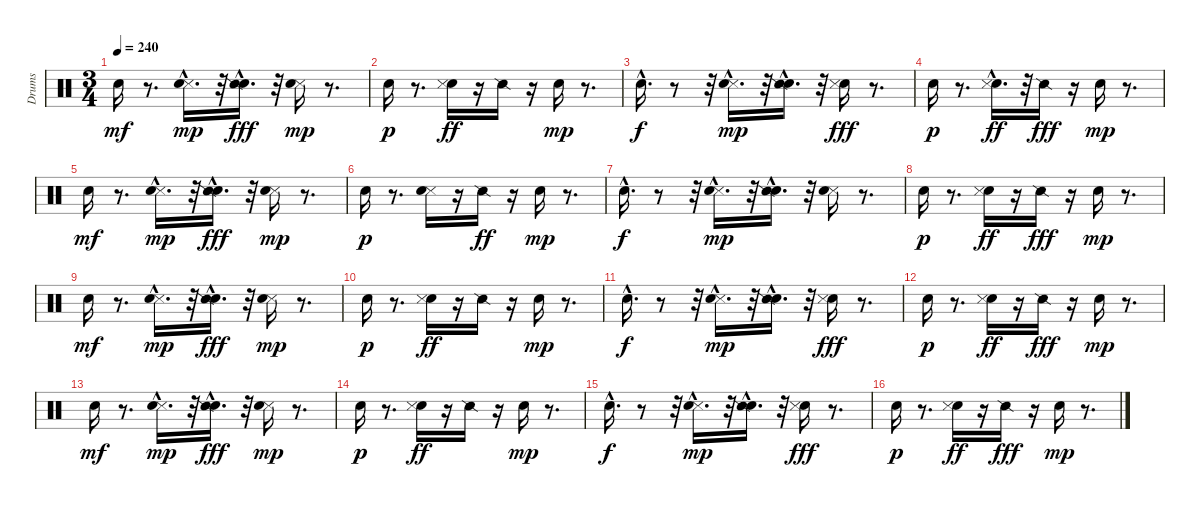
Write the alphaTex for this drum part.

\track ("Drums" "Drums") {instrument percussion}
\staff {score}
\articulation defaults
\ts (3 4)
\tempo 240
\clef neutral
\ks c "Electric Snare (hit)".16{dy mf}
r.8{d} ("Snare (side stick) 3"{hac} "Electric Snare (hit)").16{d dy mp} r.32 ("Electric Snare (hit)" "Snare (side stick) 2"{hac}).16{d dy fff} r.32 ("Snare (side stick) 3" "Electric Snare (hit)").16{dy mp} r.8{d} |
"Electric Snare (hit)".16{dy p} r.8{d} ("Electric Snare (hit)" "Snare (side stick) 3").16{dy ff} r.16 "Snare (side stick) 2".16 r.16 "Electric Snare (hit)".16{dy mp} r.8{d} |
"Electric Snare (hit)"{hac}.16{d dy f} r.8 r.32 ("Snare (side stick) 3"{hac} "Electric Snare (hit)").16{d dy mp} r.32 ("Electric Snare (hit)" "Snare (side stick) 2"{hac}).16{d} r.32 ("Electric Snare (hit)" "Snare (side stick) 3").16{dy fff} r.8{d} |
"Electric Snare (hit)".16{dy p} r.8{d} ("Electric Snare (hit)" "Snare (side stick) 3"{hac}).16{d dy ff} r.32 "Snare (side stick) 2".16{dy fff} r.16 "Electric Snare (hit)".16{dy mp} r.8{d} |
"Electric Snare (hit)".16{dy mf} r.8{d} ("Snare (side stick) 3"{hac} "Electric Snare (hit)").16{d dy mp} r.32 ("Electric Snare (hit)" "Snare (side stick) 2"{hac}).16{d dy fff} r.32 ("Snare (side stick) 3" "Electric Snare (hit)").16{dy mp} r.8{d} |
"Electric Snare (hit)".16{dy p} r.8{d} ("Snare (side stick) 3" "Electric Snare (hit)").16 r.16 "Snare (side stick) 2".16{dy ff} r.16 "Electric Snare (hit)".16{dy mp} r.8{d} |
"Electric Snare (hit)"{hac}.16{d dy f} r.8 r.32 ("Snare (side stick) 3"{hac} "Electric Snare (hit)").16{d dy mp} r.32 ("Electric Snare (hit)" "Snare (side stick) 2"{hac}).16{d} r.32 ("Snare (side stick) 3" "Electric Snare (hit)").16 r.8{d} |
"Electric Snare (hit)".16{dy p} r.8{d} ("Electric Snare (hit)" "Snare (side stick) 3").16{dy ff} r.16 "Snare (side stick) 2".16{dy fff} r.16 "Electric Snare (hit)".16{dy mp} r.8{d} |
"Electric Snare (hit)".16{dy mf} r.8{d} ("Snare (side stick) 3"{hac} "Electric Snare (hit)").16{d dy mp} r.32 ("Electric Snare (hit)" "Snare (side stick) 2"{hac}).16{d dy fff} r.32 ("Snare (side stick) 3" "Electric Snare (hit)").16{dy mp} r.8{d} |
"Electric Snare (hit)".16{dy p} r.8{d} ("Electric Snare (hit)" "Snare (side stick) 3").16{dy ff} r.16 "Snare (side stick) 2".16 r.16 "Electric Snare (hit)".16{dy mp} r.8{d} |
"Electric Snare (hit)"{hac}.16{d dy f} r.8 r.32 ("Snare (side stick) 3"{hac} "Electric Snare (hit)").16{d dy mp} r.32 ("Electric Snare (hit)" "Snare (side stick) 2"{hac}).16{d} r.32 ("Electric Snare (hit)" "Snare (side stick) 3").16{dy fff} r.8{d} |
"Electric Snare (hit)".16{dy p} r.8{d} ("Electric Snare (hit)" "Snare (side stick) 3").16{dy ff} r.16 "Snare (side stick) 2".16{dy fff} r.16 "Electric Snare (hit)".16{dy mp} r.8{d} |
"Electric Snare (hit)".16{dy mf} r.8{d} ("Snare (side stick) 3"{hac} "Electric Snare (hit)").16{d dy mp} r.32 ("Electric Snare (hit)" "Snare (side stick) 2"{hac}).16{d dy fff} r.32 ("Snare (side stick) 3" "Electric Snare (hit)").16{dy mp} r.8{d} |
"Electric Snare (hit)".16{dy p} r.8{d} ("Electric Snare (hit)" "Snare (side stick) 3").16{dy ff} r.16 "Snare (side stick) 2".16 r.16 "Electric Snare (hit)".16{dy mp} r.8{d} |
"Electric Snare (hit)"{hac}.16{d dy f} r.8 r.32 ("Snare (side stick) 3"{hac} "Electric Snare (hit)").16{d dy mp} r.32 ("Electric Snare (hit)" "Snare (side stick) 2"{hac}).16{d} r.32 ("Electric Snare (hit)" "Snare (side stick) 3").16{dy fff} r.8{d} |
"Electric Snare (hit)".16{dy p} r.8{d} ("Electric Snare (hit)" "Snare (side stick) 3").16{dy ff} r.16 "Snare (side stick) 2".16{dy fff} r.16 "Electric Snare (hit)".16{dy mp} r.8{d}
